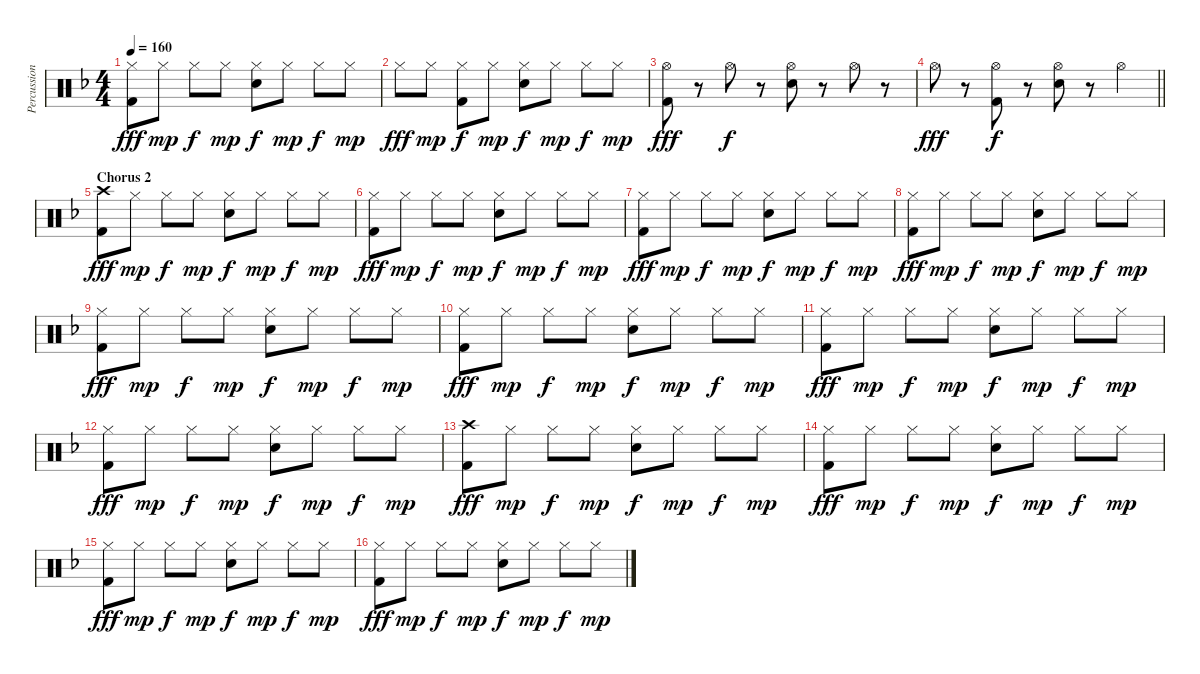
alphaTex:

\track ("Percussion" "Percussion") {instrument percussion}
\staff {score}
\articulation defaults
\ts (4 4)
\tempo 160
\clef neutral
\ks f
("Hi-Hat (closed)" "Kick (hit) 2").8{dy fff} "Hi-Hat (closed)".8{dy mp} "Hi-Hat (closed)".8{dy f} "Hi-Hat (closed)".8{dy mp} ("Hi-Hat (closed)" "Electric Snare (hit)").8{dy f} "Hi-Hat (closed)".8{dy mp} "Hi-Hat (closed)".8{dy f} "Hi-Hat (closed)".8{dy mp} |
"Hi-Hat (closed)".8{dy fff} "Hi-Hat (closed)".8{dy mp} ("Hi-Hat (closed)" "Kick (hit) 2").8{dy f} "Hi-Hat (closed)".8{dy mp} ("Hi-Hat (closed)" "Electric Snare (hit)").8{dy f} "Hi-Hat (closed)".8{dy mp} "Hi-Hat (closed)".8{dy f} "Hi-Hat (closed)".8{dy mp} |
("Hi-Hat (open)" "Kick (hit) 2").8{dy fff} r.8 "Hi-Hat (open)".8{dy f} r.8 ("Hi-Hat (open)" "Electric Snare (hit)").8 r.8 "Hi-Hat (open)".8 r.8 |
\barLineRight lightlight "Hi-Hat (open)".8{dy fff}
r.8 ("Hi-Hat (open)" "Kick (hit) 2").8{dy f} r.8 ("Hi-Hat (open)" "Electric Snare (hit)").8 r.8 "Hi-Hat (open)".4 |
\section ("" "Chorus 2")
("Crash high (hit)" "Kick (hit) 2").8{dy fff} "Hi-Hat (closed)".8{dy mp} "Hi-Hat (closed)".8{dy f} "Hi-Hat (closed)".8{dy mp} ("Hi-Hat (closed)" "Electric Snare (hit)").8{dy f} "Hi-Hat (closed)".8{dy mp} "Hi-Hat (closed)".8{dy f} "Hi-Hat (closed)".8{dy mp} |
("Hi-Hat (closed)" "Kick (hit) 2").8{dy fff} "Hi-Hat (closed)".8{dy mp} "Hi-Hat (closed)".8{dy f} "Hi-Hat (closed)".8{dy mp} ("Hi-Hat (closed)" "Electric Snare (hit)").8{dy f} "Hi-Hat (closed)".8{dy mp} "Hi-Hat (closed)".8{dy f} "Hi-Hat (closed)".8{dy mp} |
("Hi-Hat (closed)" "Kick (hit) 2").8{dy fff} "Hi-Hat (closed)".8{dy mp} "Hi-Hat (closed)".8{dy f} "Hi-Hat (closed)".8{dy mp} ("Hi-Hat (closed)" "Electric Snare (hit)").8{dy f} "Hi-Hat (closed)".8{dy mp} "Hi-Hat (closed)".8{dy f} "Hi-Hat (closed)".8{dy mp} |
("Hi-Hat (closed)" "Kick (hit) 2").8{dy fff} "Hi-Hat (closed)".8{dy mp} "Hi-Hat (closed)".8{dy f} "Hi-Hat (closed)".8{dy mp} ("Hi-Hat (closed)" "Electric Snare (hit)").8{dy f} "Hi-Hat (closed)".8{dy mp} "Hi-Hat (closed)".8{dy f} "Hi-Hat (closed)".8{dy mp} |
("Hi-Hat (closed)" "Kick (hit) 2").8{dy fff} "Hi-Hat (closed)".8{dy mp} "Hi-Hat (closed)".8{dy f} "Hi-Hat (closed)".8{dy mp} ("Hi-Hat (closed)" "Electric Snare (hit)").8{dy f} "Hi-Hat (closed)".8{dy mp} "Hi-Hat (closed)".8{dy f} "Hi-Hat (closed)".8{dy mp} |
("Hi-Hat (closed)" "Kick (hit) 2").8{dy fff} "Hi-Hat (closed)".8{dy mp} "Hi-Hat (closed)".8{dy f} "Hi-Hat (closed)".8{dy mp} ("Hi-Hat (closed)" "Electric Snare (hit)").8{dy f} "Hi-Hat (closed)".8{dy mp} "Hi-Hat (closed)".8{dy f} "Hi-Hat (closed)".8{dy mp} |
("Hi-Hat (closed)" "Kick (hit) 2").8{dy fff} "Hi-Hat (closed)".8{dy mp} "Hi-Hat (closed)".8{dy f} "Hi-Hat (closed)".8{dy mp} ("Hi-Hat (closed)" "Electric Snare (hit)").8{dy f} "Hi-Hat (closed)".8{dy mp} "Hi-Hat (closed)".8{dy f} "Hi-Hat (closed)".8{dy mp} |
("Hi-Hat (closed)" "Kick (hit) 2").8{dy fff} "Hi-Hat (closed)".8{dy mp} "Hi-Hat (closed)".8{dy f} "Hi-Hat (closed)".8{dy mp} ("Hi-Hat (closed)" "Electric Snare (hit)").8{dy f} "Hi-Hat (closed)".8{dy mp} "Hi-Hat (closed)".8{dy f} "Hi-Hat (closed)".8{dy mp} |
("Crash high (hit)" "Kick (hit) 2").8{dy fff} "Hi-Hat (closed)".8{dy mp} "Hi-Hat (closed)".8{dy f} "Hi-Hat (closed)".8{dy mp} ("Hi-Hat (closed)" "Electric Snare (hit)").8{dy f} "Hi-Hat (closed)".8{dy mp} "Hi-Hat (closed)".8{dy f} "Hi-Hat (closed)".8{dy mp} |
("Hi-Hat (closed)" "Kick (hit) 2").8{dy fff} "Hi-Hat (closed)".8{dy mp} "Hi-Hat (closed)".8{dy f} "Hi-Hat (closed)".8{dy mp} ("Hi-Hat (closed)" "Electric Snare (hit)").8{dy f} "Hi-Hat (closed)".8{dy mp} "Hi-Hat (closed)".8{dy f} "Hi-Hat (closed)".8{dy mp} |
("Hi-Hat (closed)" "Kick (hit) 2").8{dy fff} "Hi-Hat (closed)".8{dy mp} "Hi-Hat (closed)".8{dy f} "Hi-Hat (closed)".8{dy mp} ("Hi-Hat (closed)" "Electric Snare (hit)").8{dy f} "Hi-Hat (closed)".8{dy mp} "Hi-Hat (closed)".8{dy f} "Hi-Hat (closed)".8{dy mp} |
("Hi-Hat (closed)" "Kick (hit) 2").8{dy fff} "Hi-Hat (closed)".8{dy mp} "Hi-Hat (closed)".8{dy f} "Hi-Hat (closed)".8{dy mp} ("Hi-Hat (closed)" "Electric Snare (hit)").8{dy f} "Hi-Hat (closed)".8{dy mp} "Hi-Hat (closed)".8{dy f} "Hi-Hat (closed)".8{dy mp}
